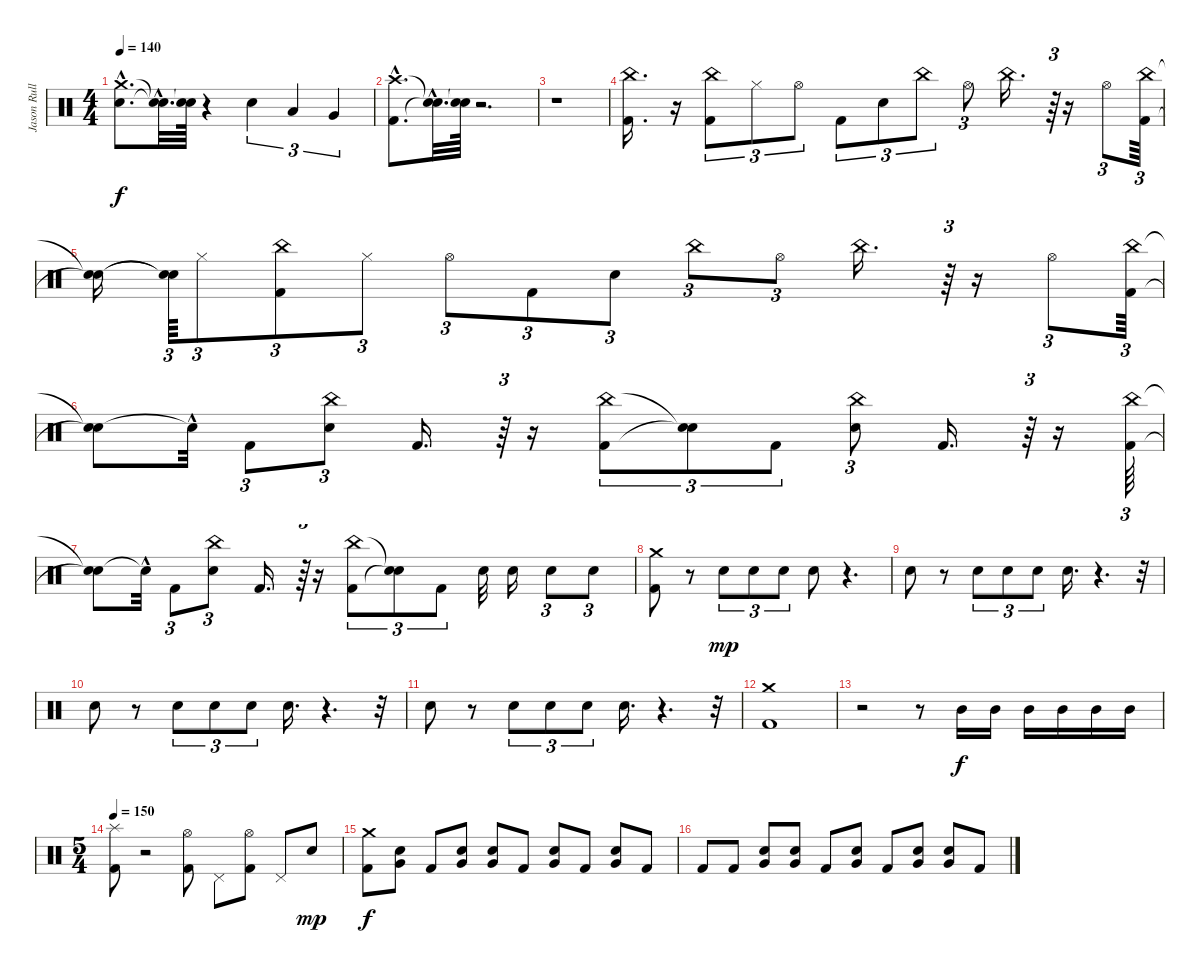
\track ("Jason Rullo" "Jason Rull") {instrument percussion}
\staff {score}
\articulation defaults
\ts (4 4)
\tempo 140
\clef neutral
\ks c
("Crash medium (hit)"{hac} "Electric Snare (hit)"{hac}).8{d dy f} ("Snare (hit)"{hac t} "Snare (hit)"{hac t}).32{d} ("Snare (hit)"{t} "Snare (hit)"{t}).64 r.4 "Electric Snare (hit)".4{tu (3 2)} "Low Tom (hit)".4{tu (3 2)} "Very Low Tom (hit)".4{tu (3 2)} |
("Kick (hit) 2"{hac} "Crash high (hit)"{hac}).8{d} ("Snare (hit)"{hac t} "Snare (hit)"{hac t}).32{d} ("Snare (hit)"{t} "Snare (hit)"{t}).64 r.2{d} |
r.1 |
("China (hit)" "Kick (hit) 2").16{d} r.16 ("China (hit)" "Kick (hit) 2").8{tu (3 2)} "Hi-Hat (closed)".8{tu (3 2)} "Hi-Hat (open)".8{tu (3 2)} "Kick (hit) 2".8{tu (3 2)} "Electric Snare (hit)".8{tu (3 2)} "China (hit)".8{tu (3 2)} "Hi-Hat (open)".8{tu (3 2)} "China (hit)".16{d} r.64{tu (3 2)} r.16 "Hi-Hat (open)".8{tu (3 2)} ("China (hit)" "Kick (hit) 2").64{tu (3 2)} |
("Snare (hit)"{t} "Snare (hit)"{t}).16 ("Snare (hit)"{t} "Snare (hit)"{t}).64{tu (3 2)} "Hi-Hat (closed)".8{tu (3 2)} ("China (hit)" "Kick (hit) 2").8{tu (3 2)} "Hi-Hat (closed)".8{tu (3 2)} "Hi-Hat (open)".8{tu (3 2)} "Kick (hit) 2".8{tu (3 2)} "Electric Snare (hit)".8{tu (3 2)} "China (hit)".8{tu (3 2)} "Hi-Hat (open)".8{tu (3 2)} "China (hit)".16{d} r.64{tu (3 2)} r.16 "Hi-Hat (open)".8{tu (3 2)} ("China (hit)" "Kick (hit) 2").64{tu (3 2)} |
("Snare (hit)"{t} "Snare (hit)"{t}).8 "Snare (hit)"{hac t}.32 "Kick (hit) 2".8{tu (3 2)} ("China (hit)" "Electric Snare (hit)").8{tu (3 2)} "Kick (hit) 2".16{d} r.64{tu (3 2)} r.16 ("China (hit)" "Kick (hit) 2").8{tu (3 2)} ("Snare (hit)"{t} "Snare (hit)"{t}).8{tu (3 2)} "Kick (hit) 2".8{tu (3 2)} ("China (hit)" "Electric Snare (hit)").8{tu (3 2)} "Kick (hit) 2".16{d} r.64{tu (3 2)} r.16 ("China (hit)" "Kick (hit) 2").64{tu (3 2)} |
("Snare (hit)"{t} "Snare (hit)"{t}).8 "Snare (hit)"{hac t}.32 "Kick (hit) 2".8{tu (3 2)} ("China (hit)" "Electric Snare (hit)").8{tu (3 2)} "Kick (hit) 2".16{d} r.64{tu (3 2)} r.16 ("China (hit)" "Kick (hit) 2").8{tu (3 2)} ("Snare (hit)"{t} "Snare (hit)"{t}).8{tu (3 2)} "Kick (hit) 2".8{tu (3 2)} "Electric Snare (hit)".32 "Electric Snare (hit)".16 "Electric Snare (hit)".8{tu (3 2)} "Electric Snare (hit)".8{tu (3 2)} |
("Crash medium (hit)" "Kick (hit) 2").8 r.8 "Electric Snare (hit)".8{tu (3 2) dy mp} "Electric Snare (hit)".8{tu (3 2)} "Electric Snare (hit)".8{tu (3 2)} "Electric Snare (hit)".8 r.4{d} |
"Electric Snare (hit)".8 r.8 "Electric Snare (hit)".8{tu (3 2)} "Electric Snare (hit)".8{tu (3 2)} "Electric Snare (hit)".8{tu (3 2)} "Electric Snare (hit)".16{d} r.4{d} r.32 |
"Electric Snare (hit)".8 r.8 "Electric Snare (hit)".8{tu (3 2)} "Electric Snare (hit)".8{tu (3 2)} "Electric Snare (hit)".8{tu (3 2)} "Electric Snare (hit)".16{d} r.4{d} r.32 |
"Electric Snare (hit)".8 r.8 "Electric Snare (hit)".8{tu (3 2)} "Electric Snare (hit)".8{tu (3 2)} "Electric Snare (hit)".8{tu (3 2)} "Electric Snare (hit)".16{d} r.4{d} r.32 |
("Crash medium (hit)" "Kick (hit) 2").1 |
r.2 r.8 "Mid Tom (hit)".16{dy f volume 4} "Mid Tom (hit)".16{volume 6} "Mid Tom (hit)".16{volume 8} "Mid Tom (hit)".16{volume 10} "Mid Tom (hit)".16{volume 12} "Mid Tom (hit)".16{volume 14} |
\ts (5 4)
\tempo 150
("Splash (hit)" "Kick (hit) 2").8{volume 16} r.2 ("Hi-Hat (open)" "Kick (hit) 2").8 "Pedal Hi-Hat (hit)".8 ("Hi-Hat (open)" "Kick (hit) 2").8 "Pedal Hi-Hat (hit)".8 "Electric Snare (hit)".8{dy mp} |
("Crash medium (hit)" "Kick (hit) 2").8{dy f} ("Very Low Tom (hit)" "Electric Snare (hit)").8 "Kick (hit) 2".8 ("Very Low Tom (hit)" "Electric Snare (hit)").8 ("Very Low Tom (hit)" "Electric Snare (hit)").8 "Kick (hit) 2".8 ("Very Low Tom (hit)" "Electric Snare (hit)").8 "Kick (hit) 2".8 ("Very Low Tom (hit)" "Electric Snare (hit)").8 "Kick (hit) 2".8 |
"Kick (hit) 2".8 "Kick (hit) 2".8 ("Very Low Tom (hit)" "Electric Snare (hit)").8 ("Very Low Tom (hit)" "Electric Snare (hit)").8 "Kick (hit) 2".8 ("Very Low Tom (hit)" "Electric Snare (hit)").8 "Kick (hit) 2".8 ("Very Low Tom (hit)" "Electric Snare (hit)").8 ("Very Low Tom (hit)" "Electric Snare (hit)").8 "Kick (hit) 2".8
